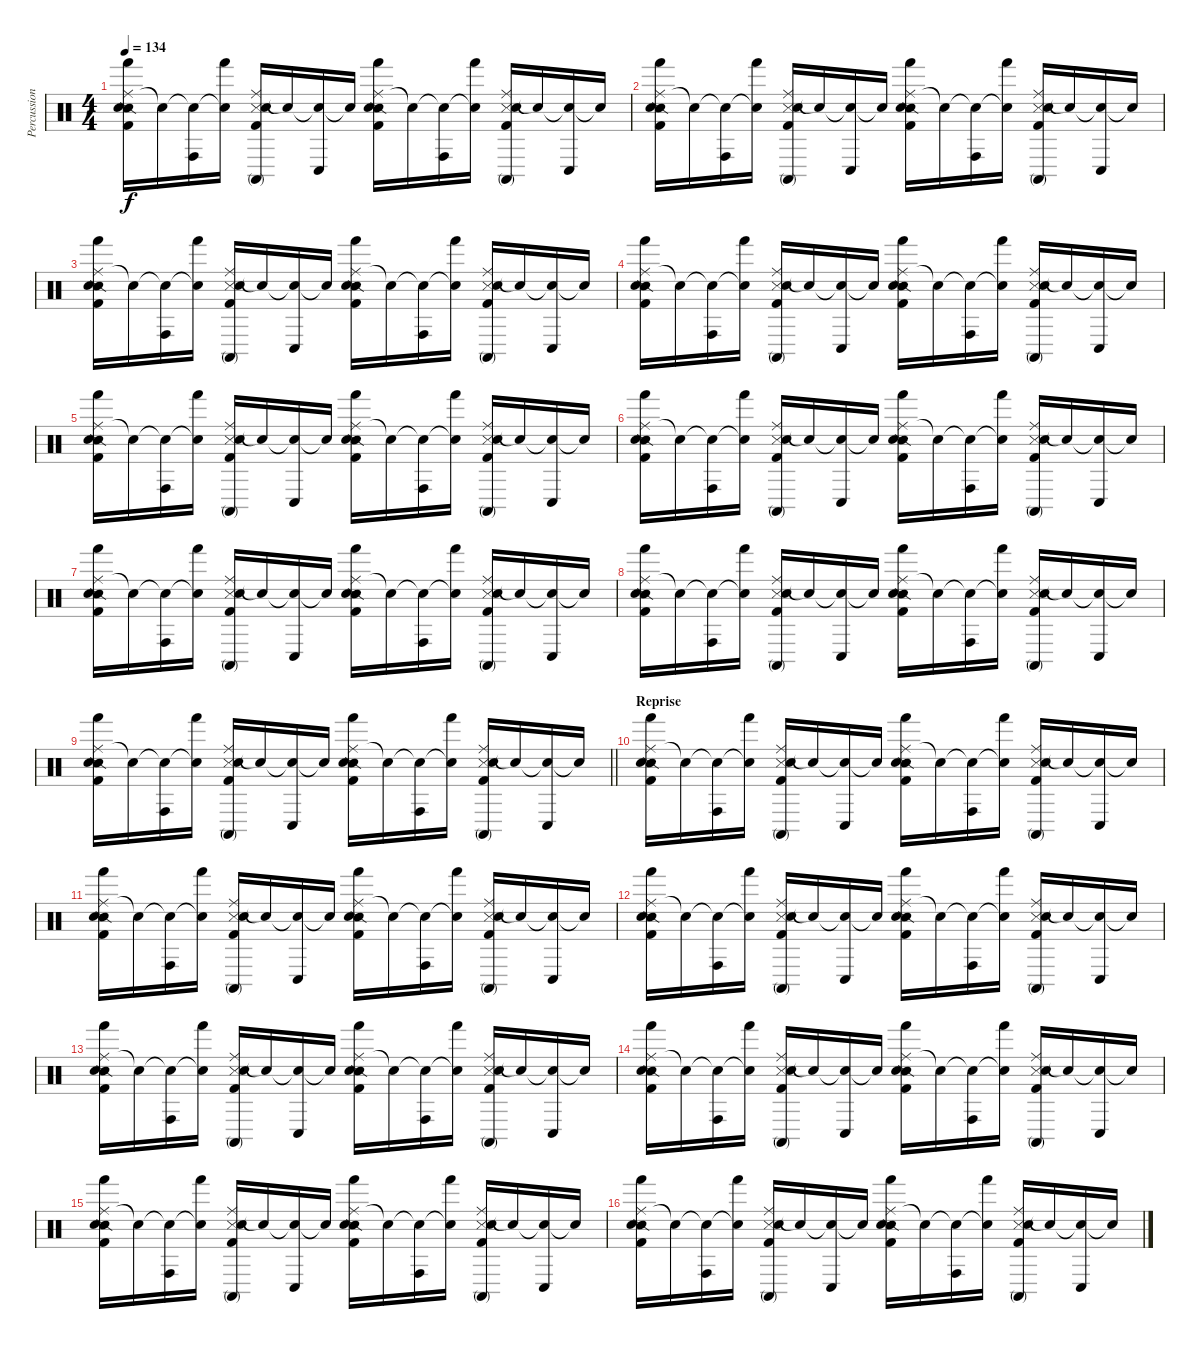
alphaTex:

\track ("Percussion" "Percussion") {instrument percussion}
\staff {score}
\articulation defaults
\ts (4 4)
\tempo 134
\clef neutral
\ks c
("Ride (middle)" "Hand (hit)" "Snare (side stick) 2" "Electric Snare (hit)" "Kick (hit) 2").16{dy f} "Snare (hit)"{t}.16 ("Snare (hit)"{t} "Conga high (hit)").16 ("Snare (hit)"{t} "Hand (hit)").16 ("Ride (middle)" "Conga high (mute)" "Metronome (hit)" "Electric Snare (hit)" "Kick (hit) 2").16 "Snare (hit)"{t}.16 ("Snare (hit)"{t} "Conga low (hit)").16 "Snare (hit)"{t}.16 ("Ride (middle)" "Hand (hit)" "Snare (side stick) 2" "Electric Snare (hit)" "Kick (hit) 2").16 "Snare (hit)"{t}.16 ("Snare (hit)"{t} "Conga high (hit)").16 ("Snare (hit)"{t} "Hand (hit)").16 ("Ride (middle)" "Conga high (mute)" "Metronome (hit)" "Electric Snare (hit)" "Kick (hit) 2").16 "Snare (hit)"{t}.16 ("Snare (hit)"{t} "Conga low (hit)").16 "Snare (hit)"{t}.16 |
("Ride (middle)" "Hand (hit)" "Snare (side stick) 2" "Electric Snare (hit)" "Kick (hit) 2").16 "Snare (hit)"{t}.16 ("Snare (hit)"{t} "Conga high (hit)").16 ("Snare (hit)"{t} "Hand (hit)").16 ("Ride (middle)" "Conga high (mute)" "Metronome (hit)" "Electric Snare (hit)" "Kick (hit) 2").16 "Snare (hit)"{t}.16 ("Snare (hit)"{t} "Conga low (hit)").16 "Snare (hit)"{t}.16 ("Ride (middle)" "Hand (hit)" "Snare (side stick) 2" "Electric Snare (hit)" "Kick (hit) 2").16 "Snare (hit)"{t}.16 ("Snare (hit)"{t} "Conga high (hit)").16 ("Snare (hit)"{t} "Hand (hit)").16 ("Ride (middle)" "Conga high (mute)" "Metronome (hit)" "Electric Snare (hit)" "Kick (hit) 2").16 "Snare (hit)"{t}.16 ("Snare (hit)"{t} "Conga low (hit)").16 "Snare (hit)"{t}.16 |
("Ride (middle)" "Hand (hit)" "Snare (side stick) 2" "Electric Snare (hit)" "Kick (hit) 2").16 "Snare (hit)"{t}.16 ("Snare (hit)"{t} "Conga high (hit)").16 ("Snare (hit)"{t} "Hand (hit)").16 ("Ride (middle)" "Conga high (mute)" "Metronome (hit)" "Electric Snare (hit)" "Kick (hit) 2").16 "Snare (hit)"{t}.16 ("Snare (hit)"{t} "Conga low (hit)").16 "Snare (hit)"{t}.16 ("Ride (middle)" "Hand (hit)" "Snare (side stick) 2" "Electric Snare (hit)" "Kick (hit) 2").16 "Snare (hit)"{t}.16 ("Snare (hit)"{t} "Conga high (hit)").16 ("Snare (hit)"{t} "Hand (hit)").16 ("Ride (middle)" "Conga high (mute)" "Metronome (hit)" "Electric Snare (hit)" "Kick (hit) 2").16 "Snare (hit)"{t}.16 ("Snare (hit)"{t} "Conga low (hit)").16 "Snare (hit)"{t}.16 |
("Ride (middle)" "Hand (hit)" "Snare (side stick) 2" "Electric Snare (hit)" "Kick (hit) 2").16 "Snare (hit)"{t}.16 ("Snare (hit)"{t} "Conga high (hit)").16 ("Snare (hit)"{t} "Hand (hit)").16 ("Ride (middle)" "Conga high (mute)" "Metronome (hit)" "Electric Snare (hit)" "Kick (hit) 2").16 "Snare (hit)"{t}.16 ("Snare (hit)"{t} "Conga low (hit)").16 "Snare (hit)"{t}.16 ("Ride (middle)" "Hand (hit)" "Snare (side stick) 2" "Electric Snare (hit)" "Kick (hit) 2").16 "Snare (hit)"{t}.16 ("Snare (hit)"{t} "Conga high (hit)").16 ("Snare (hit)"{t} "Hand (hit)").16 ("Ride (middle)" "Conga high (mute)" "Metronome (hit)" "Electric Snare (hit)" "Kick (hit) 2").16 "Snare (hit)"{t}.16 ("Snare (hit)"{t} "Conga low (hit)").16 "Snare (hit)"{t}.16 |
("Ride (middle)" "Hand (hit)" "Snare (side stick) 2" "Electric Snare (hit)" "Kick (hit) 2").16 "Snare (hit)"{t}.16 ("Snare (hit)"{t} "Conga high (hit)").16 ("Snare (hit)"{t} "Hand (hit)").16 ("Ride (middle)" "Conga high (mute)" "Metronome (hit)" "Electric Snare (hit)" "Kick (hit) 2").16 "Snare (hit)"{t}.16 ("Snare (hit)"{t} "Conga low (hit)").16 "Snare (hit)"{t}.16 ("Ride (middle)" "Hand (hit)" "Snare (side stick) 2" "Electric Snare (hit)" "Kick (hit) 2").16 "Snare (hit)"{t}.16 ("Snare (hit)"{t} "Conga high (hit)").16 ("Snare (hit)"{t} "Hand (hit)").16 ("Ride (middle)" "Conga high (mute)" "Metronome (hit)" "Electric Snare (hit)" "Kick (hit) 2").16 "Snare (hit)"{t}.16 ("Snare (hit)"{t} "Conga low (hit)").16 "Snare (hit)"{t}.16 |
("Ride (middle)" "Hand (hit)" "Snare (side stick) 2" "Electric Snare (hit)" "Kick (hit) 2").16 "Snare (hit)"{t}.16 ("Snare (hit)"{t} "Conga high (hit)").16 ("Snare (hit)"{t} "Hand (hit)").16 ("Ride (middle)" "Conga high (mute)" "Metronome (hit)" "Electric Snare (hit)" "Kick (hit) 2").16 "Snare (hit)"{t}.16 ("Snare (hit)"{t} "Conga low (hit)").16 "Snare (hit)"{t}.16 ("Ride (middle)" "Hand (hit)" "Snare (side stick) 2" "Electric Snare (hit)" "Kick (hit) 2").16 "Snare (hit)"{t}.16 ("Snare (hit)"{t} "Conga high (hit)").16 ("Snare (hit)"{t} "Hand (hit)").16 ("Ride (middle)" "Conga high (mute)" "Metronome (hit)" "Electric Snare (hit)" "Kick (hit) 2").16 "Snare (hit)"{t}.16 ("Snare (hit)"{t} "Conga low (hit)").16 "Snare (hit)"{t}.16 |
("Ride (middle)" "Hand (hit)" "Snare (side stick) 2" "Electric Snare (hit)" "Kick (hit) 2").16 "Snare (hit)"{t}.16 ("Snare (hit)"{t} "Conga high (hit)").16 ("Snare (hit)"{t} "Hand (hit)").16 ("Ride (middle)" "Conga high (mute)" "Metronome (hit)" "Electric Snare (hit)" "Kick (hit) 2").16 "Snare (hit)"{t}.16 ("Snare (hit)"{t} "Conga low (hit)").16 "Snare (hit)"{t}.16 ("Ride (middle)" "Hand (hit)" "Snare (side stick) 2" "Electric Snare (hit)" "Kick (hit) 2").16 "Snare (hit)"{t}.16 ("Snare (hit)"{t} "Conga high (hit)").16 ("Snare (hit)"{t} "Hand (hit)").16 ("Ride (middle)" "Conga high (mute)" "Metronome (hit)" "Electric Snare (hit)" "Kick (hit) 2").16 "Snare (hit)"{t}.16 ("Snare (hit)"{t} "Conga low (hit)").16 "Snare (hit)"{t}.16 |
("Ride (middle)" "Hand (hit)" "Snare (side stick) 2" "Electric Snare (hit)" "Kick (hit) 2").16 "Snare (hit)"{t}.16 ("Snare (hit)"{t} "Conga high (hit)").16 ("Snare (hit)"{t} "Hand (hit)").16 ("Ride (middle)" "Conga high (mute)" "Metronome (hit)" "Electric Snare (hit)" "Kick (hit) 2").16 "Snare (hit)"{t}.16 ("Snare (hit)"{t} "Conga low (hit)").16 "Snare (hit)"{t}.16 ("Ride (middle)" "Hand (hit)" "Snare (side stick) 2" "Electric Snare (hit)" "Kick (hit) 2").16 "Snare (hit)"{t}.16 ("Snare (hit)"{t} "Conga high (hit)").16 ("Snare (hit)"{t} "Hand (hit)").16 ("Ride (middle)" "Conga high (mute)" "Metronome (hit)" "Electric Snare (hit)" "Kick (hit) 2").16 "Snare (hit)"{t}.16 ("Snare (hit)"{t} "Conga low (hit)").16 "Snare (hit)"{t}.16 |
\barLineRight lightlight
("Ride (middle)" "Hand (hit)" "Snare (side stick) 2" "Electric Snare (hit)" "Kick (hit) 2").16 "Snare (hit)"{t}.16 ("Snare (hit)"{t} "Conga high (hit)").16 ("Snare (hit)"{t} "Hand (hit)").16 ("Ride (middle)" "Conga high (mute)" "Metronome (hit)" "Electric Snare (hit)" "Kick (hit) 2").16 "Snare (hit)"{t}.16 ("Snare (hit)"{t} "Conga low (hit)").16 "Snare (hit)"{t}.16 ("Ride (middle)" "Hand (hit)" "Snare (side stick) 2" "Electric Snare (hit)" "Kick (hit) 2").16 "Snare (hit)"{t}.16 ("Snare (hit)"{t} "Conga high (hit)").16 ("Snare (hit)"{t} "Hand (hit)").16 ("Ride (middle)" "Conga high (mute)" "Metronome (hit)" "Electric Snare (hit)" "Kick (hit) 2").16 "Snare (hit)"{t}.16 ("Snare (hit)"{t} "Conga low (hit)").16 "Snare (hit)"{t}.16 |
\section ("" "Reprise")
("Ride (middle)" "Hand (hit)" "Snare (side stick) 2" "Electric Snare (hit)" "Kick (hit) 2").16 "Snare (hit)"{t}.16 ("Snare (hit)"{t} "Conga high (hit)").16 ("Snare (hit)"{t} "Hand (hit)").16 ("Ride (middle)" "Conga high (mute)" "Metronome (hit)" "Electric Snare (hit)" "Kick (hit) 2").16 "Snare (hit)"{t}.16 ("Snare (hit)"{t} "Conga low (hit)").16 "Snare (hit)"{t}.16 ("Ride (middle)" "Hand (hit)" "Snare (side stick) 2" "Electric Snare (hit)" "Kick (hit) 2").16 "Snare (hit)"{t}.16 ("Snare (hit)"{t} "Conga high (hit)").16 ("Snare (hit)"{t} "Hand (hit)").16 ("Ride (middle)" "Conga high (mute)" "Metronome (hit)" "Electric Snare (hit)" "Kick (hit) 2").16 "Snare (hit)"{t}.16 ("Snare (hit)"{t} "Conga low (hit)").16 "Snare (hit)"{t}.16 |
("Ride (middle)" "Hand (hit)" "Snare (side stick) 2" "Electric Snare (hit)" "Kick (hit) 2").16 "Snare (hit)"{t}.16 ("Snare (hit)"{t} "Conga high (hit)").16 ("Snare (hit)"{t} "Hand (hit)").16 ("Ride (middle)" "Conga high (mute)" "Metronome (hit)" "Electric Snare (hit)" "Kick (hit) 2").16 "Snare (hit)"{t}.16 ("Snare (hit)"{t} "Conga low (hit)").16 "Snare (hit)"{t}.16 ("Ride (middle)" "Hand (hit)" "Snare (side stick) 2" "Electric Snare (hit)" "Kick (hit) 2").16 "Snare (hit)"{t}.16 ("Snare (hit)"{t} "Conga high (hit)").16 ("Snare (hit)"{t} "Hand (hit)").16 ("Ride (middle)" "Conga high (mute)" "Metronome (hit)" "Electric Snare (hit)" "Kick (hit) 2").16 "Snare (hit)"{t}.16 ("Snare (hit)"{t} "Conga low (hit)").16 "Snare (hit)"{t}.16 |
("Ride (middle)" "Hand (hit)" "Snare (side stick) 2" "Electric Snare (hit)" "Kick (hit) 2").16 "Snare (hit)"{t}.16 ("Snare (hit)"{t} "Conga high (hit)").16 ("Snare (hit)"{t} "Hand (hit)").16 ("Ride (middle)" "Conga high (mute)" "Metronome (hit)" "Electric Snare (hit)" "Kick (hit) 2").16 "Snare (hit)"{t}.16 ("Snare (hit)"{t} "Conga low (hit)").16 "Snare (hit)"{t}.16 ("Ride (middle)" "Hand (hit)" "Snare (side stick) 2" "Electric Snare (hit)" "Kick (hit) 2").16 "Snare (hit)"{t}.16 ("Snare (hit)"{t} "Conga high (hit)").16 ("Snare (hit)"{t} "Hand (hit)").16 ("Ride (middle)" "Conga high (mute)" "Metronome (hit)" "Electric Snare (hit)" "Kick (hit) 2").16 "Snare (hit)"{t}.16 ("Snare (hit)"{t} "Conga low (hit)").16 "Snare (hit)"{t}.16 |
("Ride (middle)" "Hand (hit)" "Snare (side stick) 2" "Electric Snare (hit)" "Kick (hit) 2").16 "Snare (hit)"{t}.16 ("Snare (hit)"{t} "Conga high (hit)").16 ("Snare (hit)"{t} "Hand (hit)").16 ("Ride (middle)" "Conga high (mute)" "Metronome (hit)" "Electric Snare (hit)" "Kick (hit) 2").16 "Snare (hit)"{t}.16 ("Snare (hit)"{t} "Conga low (hit)").16 "Snare (hit)"{t}.16 ("Ride (middle)" "Hand (hit)" "Snare (side stick) 2" "Electric Snare (hit)" "Kick (hit) 2").16 "Snare (hit)"{t}.16 ("Snare (hit)"{t} "Conga high (hit)").16 ("Snare (hit)"{t} "Hand (hit)").16 ("Ride (middle)" "Conga high (mute)" "Metronome (hit)" "Electric Snare (hit)" "Kick (hit) 2").16 "Snare (hit)"{t}.16 ("Snare (hit)"{t} "Conga low (hit)").16 "Snare (hit)"{t}.16 |
("Ride (middle)" "Hand (hit)" "Snare (side stick) 2" "Electric Snare (hit)" "Kick (hit) 2").16 "Snare (hit)"{t}.16 ("Snare (hit)"{t} "Conga high (hit)").16 ("Snare (hit)"{t} "Hand (hit)").16 ("Ride (middle)" "Conga high (mute)" "Metronome (hit)" "Electric Snare (hit)" "Kick (hit) 2").16 "Snare (hit)"{t}.16 ("Snare (hit)"{t} "Conga low (hit)").16 "Snare (hit)"{t}.16 ("Ride (middle)" "Hand (hit)" "Snare (side stick) 2" "Electric Snare (hit)" "Kick (hit) 2").16 "Snare (hit)"{t}.16 ("Snare (hit)"{t} "Conga high (hit)").16 ("Snare (hit)"{t} "Hand (hit)").16 ("Ride (middle)" "Conga high (mute)" "Metronome (hit)" "Electric Snare (hit)" "Kick (hit) 2").16 "Snare (hit)"{t}.16 ("Snare (hit)"{t} "Conga low (hit)").16 "Snare (hit)"{t}.16 |
("Ride (middle)" "Hand (hit)" "Snare (side stick) 2" "Electric Snare (hit)" "Kick (hit) 2").16 "Snare (hit)"{t}.16 ("Snare (hit)"{t} "Conga high (hit)").16 ("Snare (hit)"{t} "Hand (hit)").16 ("Ride (middle)" "Conga high (mute)" "Metronome (hit)" "Electric Snare (hit)" "Kick (hit) 2").16 "Snare (hit)"{t}.16 ("Snare (hit)"{t} "Conga low (hit)").16 "Snare (hit)"{t}.16 ("Ride (middle)" "Hand (hit)" "Snare (side stick) 2" "Electric Snare (hit)" "Kick (hit) 2").16 "Snare (hit)"{t}.16 ("Snare (hit)"{t} "Conga high (hit)").16 ("Snare (hit)"{t} "Hand (hit)").16 ("Ride (middle)" "Conga high (mute)" "Metronome (hit)" "Electric Snare (hit)" "Kick (hit) 2").16 "Snare (hit)"{t}.16 ("Snare (hit)"{t} "Conga low (hit)").16 "Snare (hit)"{t}.16 |
("Ride (middle)" "Hand (hit)" "Snare (side stick) 2" "Electric Snare (hit)" "Kick (hit) 2").16 "Snare (hit)"{t}.16 ("Snare (hit)"{t} "Conga high (hit)").16 ("Snare (hit)"{t} "Hand (hit)").16 ("Ride (middle)" "Conga high (mute)" "Metronome (hit)" "Electric Snare (hit)" "Kick (hit) 2").16 "Snare (hit)"{t}.16 ("Snare (hit)"{t} "Conga low (hit)").16 "Snare (hit)"{t}.16 ("Ride (middle)" "Hand (hit)" "Snare (side stick) 2" "Electric Snare (hit)" "Kick (hit) 2").16 "Snare (hit)"{t}.16 ("Snare (hit)"{t} "Conga high (hit)").16 ("Snare (hit)"{t} "Hand (hit)").16 ("Ride (middle)" "Conga high (mute)" "Metronome (hit)" "Electric Snare (hit)" "Kick (hit) 2").16 "Snare (hit)"{t}.16 ("Snare (hit)"{t} "Conga low (hit)").16 "Snare (hit)"{t}.16
